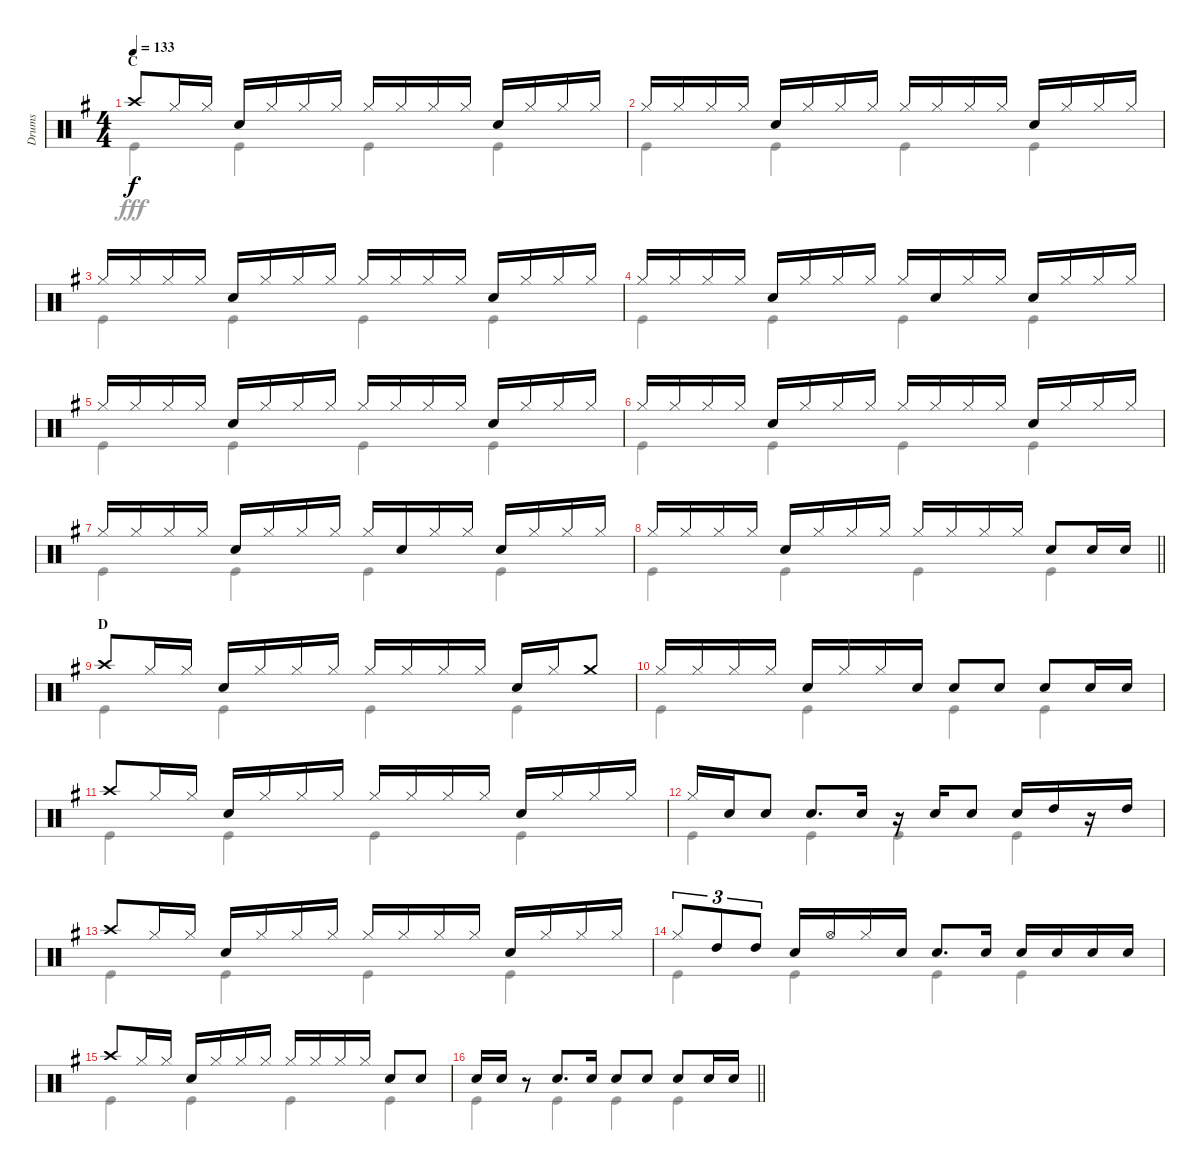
\track ("Drums" "Drums") {instrument percussion}
\staff {score}
\articulation defaults
\voice
\ts (4 4)
\section ("" "C")
\tempo 133
\clef neutral
\ks g "Crash high (hit)".8{dy f} "Hi-Hat (closed)".16 "Hi-Hat (closed)".16 "Snare (hit) 2".16 "Hi-Hat (closed)".16 "Hi-Hat (closed)".16 "Hi-Hat (closed)".16 "Hi-Hat (closed)".16 "Hi-Hat (closed)".16 "Hi-Hat (closed)".16 "Hi-Hat (closed)".16 "Snare (hit) 2".16 "Hi-Hat (closed)".16 "Hi-Hat (closed)".16 "Hi-Hat (closed)".16
|
"Hi-Hat (closed)".16 "Hi-Hat (closed)".16 "Hi-Hat (closed)".16 "Hi-Hat (closed)".16 "Snare (hit) 2".16 "Hi-Hat (closed)".16 "Hi-Hat (closed)".16 "Hi-Hat (closed)".16 "Hi-Hat (closed)".16 "Hi-Hat (closed)".16 "Hi-Hat (closed)".16 "Hi-Hat (closed)".16 "Snare (hit) 2".16 "Hi-Hat (closed)".16 "Hi-Hat (closed)".16 "Hi-Hat (closed)".16 |
"Hi-Hat (closed)".16 "Hi-Hat (closed)".16 "Hi-Hat (closed)".16 "Hi-Hat (closed)".16 "Snare (hit) 2".16 "Hi-Hat (closed)".16 "Hi-Hat (closed)".16 "Hi-Hat (closed)".16 "Hi-Hat (closed)".16 "Hi-Hat (closed)".16 "Hi-Hat (closed)".16 "Hi-Hat (closed)".16 "Snare (hit) 2".16 "Hi-Hat (closed)".16 "Hi-Hat (closed)".16 "Hi-Hat (closed)".16 |
"Hi-Hat (closed)".16 "Hi-Hat (closed)".16 "Hi-Hat (closed)".16 "Hi-Hat (closed)".16 "Snare (hit) 2".16 "Hi-Hat (closed)".16 "Hi-Hat (closed)".16 "Hi-Hat (closed)".16 "Hi-Hat (closed)".16 "Snare (hit) 2".16 "Hi-Hat (closed)".16 "Hi-Hat (closed)".16 "Snare (hit) 2".16 "Hi-Hat (closed)".16 "Hi-Hat (closed)".16 "Hi-Hat (closed)".16 |
"Hi-Hat (closed)".16 "Hi-Hat (closed)".16 "Hi-Hat (closed)".16 "Hi-Hat (closed)".16 "Snare (hit) 2".16 "Hi-Hat (closed)".16 "Hi-Hat (closed)".16 "Hi-Hat (closed)".16 "Hi-Hat (closed)".16 "Hi-Hat (closed)".16 "Hi-Hat (closed)".16 "Hi-Hat (closed)".16 "Snare (hit) 2".16 "Hi-Hat (closed)".16 "Hi-Hat (closed)".16 "Hi-Hat (closed)".16 |
"Hi-Hat (closed)".16 "Hi-Hat (closed)".16 "Hi-Hat (closed)".16 "Hi-Hat (closed)".16 "Snare (hit) 2".16 "Hi-Hat (closed)".16 "Hi-Hat (closed)".16 "Hi-Hat (closed)".16 "Hi-Hat (closed)".16 "Hi-Hat (closed)".16 "Hi-Hat (closed)".16 "Hi-Hat (closed)".16 "Snare (hit) 2".16 "Hi-Hat (closed)".16 "Hi-Hat (closed)".16 "Hi-Hat (closed)".16 |
"Hi-Hat (closed)".16 "Hi-Hat (closed)".16 "Hi-Hat (closed)".16 "Hi-Hat (closed)".16 "Snare (hit) 2".16 "Hi-Hat (closed)".16 "Hi-Hat (closed)".16 "Hi-Hat (closed)".16 "Hi-Hat (closed)".16 "Snare (hit) 2".16 "Hi-Hat (closed)".16 "Hi-Hat (closed)".16 "Snare (hit) 2".16 "Hi-Hat (closed)".16 "Hi-Hat (closed)".16 "Hi-Hat (closed)".16 |
\barLineRight lightlight "Hi-Hat (closed)".16 "Hi-Hat (closed)".16 "Hi-Hat (closed)".16 "Hi-Hat (closed)".16 "Snare (hit) 2".16 "Hi-Hat (closed)".16 "Hi-Hat (closed)".16 "Hi-Hat (closed)".16 "Hi-Hat (closed)".16 "Hi-Hat (closed)".16 "Hi-Hat (closed)".16 "Hi-Hat (closed)".16 "Snare (hit) 2".8 "Snare (hit) 2".16 "Snare (hit) 2".16
|
\section ("" "D")
"Crash high (hit)".8 "Hi-Hat (closed)".16 "Hi-Hat (closed)".16 "Snare (hit) 2".16 "Hi-Hat (closed)".16 "Hi-Hat (closed)".16 "Hi-Hat (closed)".16 "Hi-Hat (closed)".16 "Hi-Hat (closed)".16 "Hi-Hat (closed)".16 "Hi-Hat (closed)".16 "Snare (hit) 2".16 "Hi-Hat (closed)".16 "Crash medium (hit)".8 |
"Hi-Hat (closed)".16 "Hi-Hat (closed)".16 "Hi-Hat (closed)".16 "Hi-Hat (closed)".16 "Snare (hit) 2".16 "Hi-Hat (closed)".16 "Hi-Hat (closed)".16 "Snare (hit) 2".16 "Snare (hit) 2".8 "Snare (hit) 2".8 "Snare (hit) 2".8 "Snare (hit) 2".16 "Snare (hit) 2".16 |
"Crash high (hit)".8 "Hi-Hat (closed)".16 "Hi-Hat (closed)".16 "Snare (hit) 2".16 "Hi-Hat (closed)".16 "Hi-Hat (closed)".16 "Hi-Hat (closed)".16 "Hi-Hat (closed)".16 "Hi-Hat (closed)".16 "Hi-Hat (closed)".16 "Hi-Hat (closed)".16 "Snare (hit) 2".16 "Hi-Hat (closed)".16 "Hi-Hat (closed)".16 "Hi-Hat (closed)".16 |
"Hi-Hat (closed)".16 "Snare (hit) 2".16 "Snare (hit) 2".8 "Snare (hit) 2".8{d} "Snare (hit) 2".16 r.16 "Snare (hit) 2".16 "Snare (hit) 2".8 "Snare (hit) 2".16 "High Tom (hit)".16 r.16 "High Tom (hit)".16 |
"Crash high (hit)".8 "Hi-Hat (closed)".16 "Hi-Hat (closed)".16 "Snare (hit) 2".16 "Hi-Hat (closed)".16 "Hi-Hat (closed)".16 "Hi-Hat (closed)".16 "Hi-Hat (closed)".16 "Hi-Hat (closed)".16 "Hi-Hat (closed)".16 "Hi-Hat (closed)".16 "Snare (hit) 2".16 "Hi-Hat (closed)".16 "Hi-Hat (closed)".16 "Hi-Hat (closed)".16 |
"Hi-Hat (closed)".8{tu (3 2)} "High Tom (hit)".8{tu (3 2)} "High Tom (hit)".8{tu (3 2)} "Snare (hit) 2".16 "Hi-Hat (open)".16 "Hi-Hat (closed)".16 "Snare (hit) 2".16 "Snare (hit) 2".8{d} "Snare (hit) 2".16 "Snare (hit) 2".16 "Snare (hit) 2".16 "Snare (hit) 2".16 "Snare (hit) 2".16 |
"Crash high (hit)".8 "Hi-Hat (closed)".16 "Hi-Hat (closed)".16 "Snare (hit) 2".16 "Hi-Hat (closed)".16 "Hi-Hat (closed)".16 "Hi-Hat (closed)".16 "Hi-Hat (closed)".16 "Hi-Hat (closed)".16 "Hi-Hat (closed)".16 "Hi-Hat (closed)".16 "Snare (hit) 2".8 "Snare (hit) 2".8 |
\barLineRight lightlight "Snare (hit) 2".16 "Snare (hit) 2".16
r.8 "Snare (hit) 2".8{d} "Snare (hit) 2".16 "Snare (hit) 2".8 "Snare (hit) 2".8 "Snare (hit) 2".8 "Snare (hit) 2".16 "Snare (hit) 2".16
\voice
\clef neutral
\ottava regular
\simile none
\ks g "Kick (hit)".4{dy fff} "Kick (hit)".4 "Kick (hit)".4 "Kick (hit)".4
|
"Kick (hit)".4 "Kick (hit)".4 "Kick (hit)".4 "Kick (hit)".4 |
"Kick (hit)".4 "Kick (hit)".4 "Kick (hit)".4 "Kick (hit)".4 |
"Kick (hit)".4 "Kick (hit)".4 "Kick (hit)".4 "Kick (hit)".4 |
"Kick (hit)".4 "Kick (hit)".4 "Kick (hit)".4 "Kick (hit)".4 |
"Kick (hit)".4 "Kick (hit)".4 "Kick (hit)".4 "Kick (hit)".4 |
"Kick (hit)".4 "Kick (hit)".4 "Kick (hit)".4 "Kick (hit)".4 |
\barLineRight lightlight "Kick (hit)".4 "Kick (hit)".4 "Kick (hit)".4 "Kick (hit)".4
|
"Kick (hit)".4 "Kick (hit)".4 "Kick (hit)".4 "Kick (hit)".4 |
"Kick (hit)".4 "Kick (hit)".4 "Kick (hit)".4 "Kick (hit)".4 |
"Kick (hit)".4 "Kick (hit)".4 "Kick (hit)".4 "Kick (hit)".4 |
"Kick (hit)".4 "Kick (hit)".4 "Kick (hit)".4 "Kick (hit)".4 |
"Kick (hit)".4 "Kick (hit)".4 "Kick (hit)".4 "Kick (hit)".4 |
"Kick (hit)".4 "Kick (hit)".4 "Kick (hit)".4 "Kick (hit)".4 |
"Kick (hit)".4 "Kick (hit)".4 "Kick (hit)".4 "Kick (hit)".4 |
\barLineRight lightlight "Kick (hit)".4 "Kick (hit)".4 "Kick (hit)".4 "Kick (hit)".4
